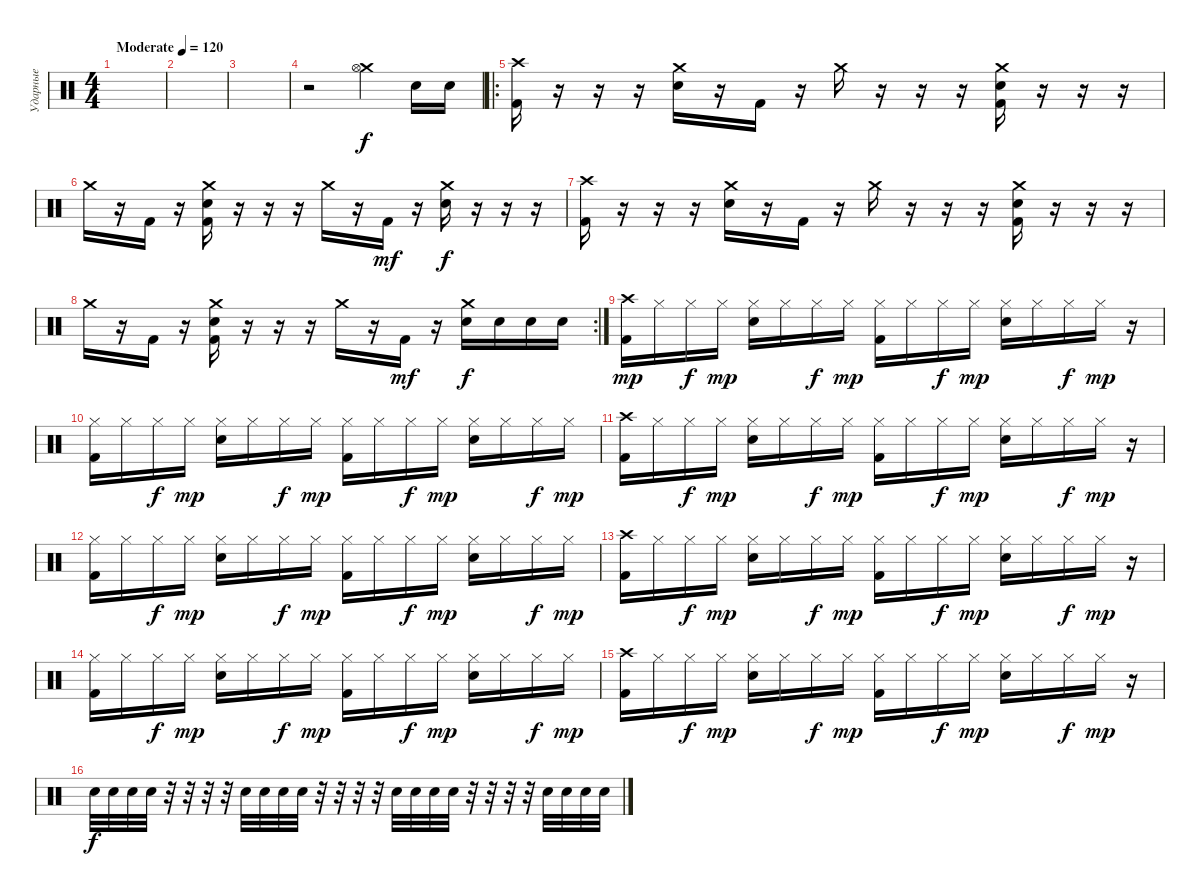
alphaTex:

\track ("Ударные" "Ударные") {instrument percussion}
\staff {score}
\articulation defaults
\ts (4 4)
\tempo (120 "Moderate")
\tempo 95
\tempo (120 "Moderate")
\clef neutral
\ks c
|
|
|
r.2 ("Crash medium (hit)" "Hi-Hat (open)").4 "Electric Snare (hit)".16 "Electric Snare (hit)".16 |
\ro
("Crash high (hit)" "Kick (hit) 2").16 r.16 r.16 r.16 ("Crash medium (hit)" "Electric Snare (hit)").16 r.16 "Kick (hit) 2".16 r.16 "Crash medium (hit)".16 r.16 r.16 r.16 ("Crash medium (hit)" "Electric Snare (hit)" "Kick (hit) 2").16 r.16 r.16 r.16 |
"Crash medium (hit)".16 r.16 "Kick (hit) 2".16 r.16 ("Crash medium (hit)" "Electric Snare (hit)" "Kick (hit) 2").16 r.16 r.16 r.16 "Crash medium (hit)".16 r.16 "Kick (hit) 2".16{dy mf} r.16 ("Crash medium (hit)" "Electric Snare (hit)").16{dy f} r.16 r.16 r.16 |
("Crash high (hit)" "Kick (hit) 2").16 r.16 r.16 r.16 ("Crash medium (hit)" "Electric Snare (hit)").16 r.16 "Kick (hit) 2".16 r.16 "Crash medium (hit)".16 r.16 r.16 r.16 ("Crash medium (hit)" "Electric Snare (hit)" "Kick (hit) 2").16 r.16 r.16 r.16 |
\rc 2 "Crash medium (hit)".16
r.16 "Kick (hit) 2".16 r.16 ("Crash medium (hit)" "Electric Snare (hit)" "Kick (hit) 2").16 r.16 r.16 r.16 "Crash medium (hit)".16 r.16 "Kick (hit) 2".16{dy mf} r.16 ("Crash medium (hit)" "Electric Snare (hit)").16{dy f} "Electric Snare (hit)".16 "Electric Snare (hit)".16 "Electric Snare (hit)".16 |
("Crash high (hit)" "Kick (hit) 2").16{dy mp} "Hi-Hat (closed)".16 "Hi-Hat (closed)".16{dy f} "Hi-Hat (closed)".16{dy mp} ("Hi-Hat (closed)" "Electric Snare (hit)").16 "Hi-Hat (closed)".16 "Hi-Hat (closed)".16{dy f} "Hi-Hat (closed)".16{dy mp} ("Hi-Hat (closed)" "Kick (hit) 2").16 "Hi-Hat (closed)".16 "Hi-Hat (closed)".16{dy f} "Hi-Hat (closed)".16{dy mp} ("Hi-Hat (closed)" "Electric Snare (hit)").16 "Hi-Hat (closed)".16 "Hi-Hat (closed)".16{dy f} "Hi-Hat (closed)".16{dy mp} r.16 |
("Hi-Hat (closed)" "Kick (hit) 2").16 "Hi-Hat (closed)".16 "Hi-Hat (closed)".16{dy f} "Hi-Hat (closed)".16{dy mp} ("Hi-Hat (closed)" "Electric Snare (hit)").16 "Hi-Hat (closed)".16 "Hi-Hat (closed)".16{dy f} "Hi-Hat (closed)".16{dy mp} ("Hi-Hat (closed)" "Kick (hit) 2").16 "Hi-Hat (closed)".16 "Hi-Hat (closed)".16{dy f} "Hi-Hat (closed)".16{dy mp} ("Hi-Hat (closed)" "Electric Snare (hit)").16 "Hi-Hat (closed)".16 "Hi-Hat (closed)".16{dy f} "Hi-Hat (closed)".16{dy mp} |
("Crash high (hit)" "Kick (hit) 2").16 "Hi-Hat (closed)".16 "Hi-Hat (closed)".16{dy f} "Hi-Hat (closed)".16{dy mp} ("Hi-Hat (closed)" "Electric Snare (hit)").16 "Hi-Hat (closed)".16 "Hi-Hat (closed)".16{dy f} "Hi-Hat (closed)".16{dy mp} ("Hi-Hat (closed)" "Kick (hit) 2").16 "Hi-Hat (closed)".16 "Hi-Hat (closed)".16{dy f} "Hi-Hat (closed)".16{dy mp} ("Hi-Hat (closed)" "Electric Snare (hit)").16 "Hi-Hat (closed)".16 "Hi-Hat (closed)".16{dy f} "Hi-Hat (closed)".16{dy mp} r.16 |
("Hi-Hat (closed)" "Kick (hit) 2").16 "Hi-Hat (closed)".16 "Hi-Hat (closed)".16{dy f} "Hi-Hat (closed)".16{dy mp} ("Hi-Hat (closed)" "Electric Snare (hit)").16 "Hi-Hat (closed)".16 "Hi-Hat (closed)".16{dy f} "Hi-Hat (closed)".16{dy mp} ("Hi-Hat (closed)" "Kick (hit) 2").16 "Hi-Hat (closed)".16 "Hi-Hat (closed)".16{dy f} "Hi-Hat (closed)".16{dy mp} ("Hi-Hat (closed)" "Electric Snare (hit)").16 "Hi-Hat (closed)".16 "Hi-Hat (closed)".16{dy f} "Hi-Hat (closed)".16{dy mp} |
("Crash high (hit)" "Kick (hit) 2").16 "Hi-Hat (closed)".16 "Hi-Hat (closed)".16{dy f} "Hi-Hat (closed)".16{dy mp} ("Hi-Hat (closed)" "Electric Snare (hit)").16 "Hi-Hat (closed)".16 "Hi-Hat (closed)".16{dy f} "Hi-Hat (closed)".16{dy mp} ("Hi-Hat (closed)" "Kick (hit) 2").16 "Hi-Hat (closed)".16 "Hi-Hat (closed)".16{dy f} "Hi-Hat (closed)".16{dy mp} ("Hi-Hat (closed)" "Electric Snare (hit)").16 "Hi-Hat (closed)".16 "Hi-Hat (closed)".16{dy f} "Hi-Hat (closed)".16{dy mp} r.16 |
("Hi-Hat (closed)" "Kick (hit) 2").16 "Hi-Hat (closed)".16 "Hi-Hat (closed)".16{dy f} "Hi-Hat (closed)".16{dy mp} ("Hi-Hat (closed)" "Electric Snare (hit)").16 "Hi-Hat (closed)".16 "Hi-Hat (closed)".16{dy f} "Hi-Hat (closed)".16{dy mp} ("Hi-Hat (closed)" "Kick (hit) 2").16 "Hi-Hat (closed)".16 "Hi-Hat (closed)".16{dy f} "Hi-Hat (closed)".16{dy mp} ("Hi-Hat (closed)" "Electric Snare (hit)").16 "Hi-Hat (closed)".16 "Hi-Hat (closed)".16{dy f} "Hi-Hat (closed)".16{dy mp} |
("Crash high (hit)" "Kick (hit) 2").16 "Hi-Hat (closed)".16 "Hi-Hat (closed)".16{dy f} "Hi-Hat (closed)".16{dy mp} ("Hi-Hat (closed)" "Electric Snare (hit)").16 "Hi-Hat (closed)".16 "Hi-Hat (closed)".16{dy f} "Hi-Hat (closed)".16{dy mp} ("Hi-Hat (closed)" "Kick (hit) 2").16 "Hi-Hat (closed)".16 "Hi-Hat (closed)".16{dy f} "Hi-Hat (closed)".16{dy mp} ("Hi-Hat (closed)" "Electric Snare (hit)").16 "Hi-Hat (closed)".16 "Hi-Hat (closed)".16{dy f} "Hi-Hat (closed)".16{dy mp} r.16 |
"Electric Snare (hit)".32{dy f} "Electric Snare (hit)".32 "Electric Snare (hit)".32 "Electric Snare (hit)".32 r.32 r.32 r.32 r.32 "Electric Snare (hit)".32 "Electric Snare (hit)".32 "Electric Snare (hit)".32 "Electric Snare (hit)".32 r.32 r.32 r.32 r.32 "Electric Snare (hit)".32 "Electric Snare (hit)".32 "Electric Snare (hit)".32 "Electric Snare (hit)".32 r.32 r.32 r.32 r.32 "Electric Snare (hit)".32 "Electric Snare (hit)".32 "Electric Snare (hit)".32 "Electric Snare (hit)".32
